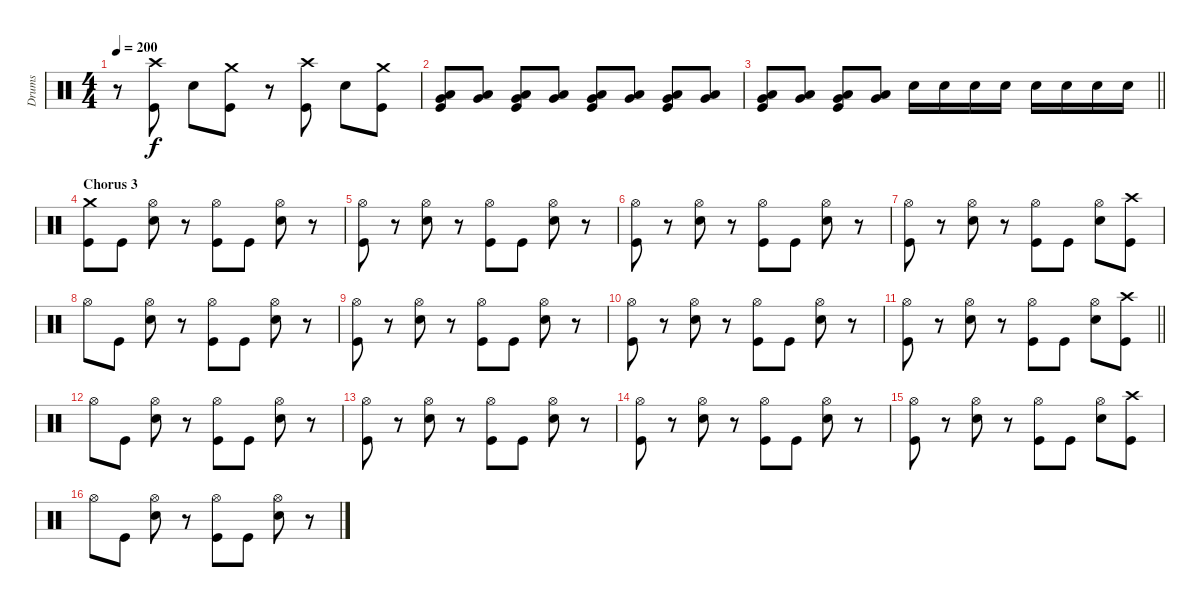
\track ("Drums" "Drums") {instrument percussion}
\staff {score}
\articulation defaults
\ts (4 4)
\tempo 200
\clef neutral
\ks c
r.8{dy f} ("Crash high (hit)" "Kick (hit)").8 "Electric Snare (hit)".8 ("Crash medium (hit)" "Kick (hit)").8 r.8 ("Crash high (hit)" "Kick (hit)").8 "Electric Snare (hit)".8 ("Crash medium (hit)" "Kick (hit)").8 |
("Very Low Tom (hit)" "Low Floor Tom (hit)" "Kick (hit)").8 ("Very Low Tom (hit)" "Low Floor Tom (hit)").8 ("Very Low Tom (hit)" "Low Floor Tom (hit)" "Kick (hit)").8 ("Very Low Tom (hit)" "Low Floor Tom (hit)").8 ("Very Low Tom (hit)" "Low Floor Tom (hit)" "Kick (hit)").8 ("Very Low Tom (hit)" "Low Floor Tom (hit)").8 ("Very Low Tom (hit)" "Low Floor Tom (hit)" "Kick (hit)").8 ("Very Low Tom (hit)" "Low Floor Tom (hit)").8 |
\barLineRight lightlight
("Very Low Tom (hit)" "Low Floor Tom (hit)" "Kick (hit)").8 ("Very Low Tom (hit)" "Low Floor Tom (hit)").8 ("Very Low Tom (hit)" "Low Floor Tom (hit)" "Kick (hit)").8 ("Very Low Tom (hit)" "Low Floor Tom (hit)").8 "Electric Snare (hit)".16 "Electric Snare (hit)".16 "Electric Snare (hit)".16 "Electric Snare (hit)".16 "Electric Snare (hit)".16 "Electric Snare (hit)".16 "Electric Snare (hit)".16 "Electric Snare (hit)".16 |
\section ("" "Chorus 3")
("Crash medium (hit)" "Kick (hit)").8 "Kick (hit)".8 ("Hi-Hat (open)" "Electric Snare (hit)").8 r.8 ("Hi-Hat (open)" "Kick (hit)").8 "Kick (hit)".8 ("Hi-Hat (open)" "Electric Snare (hit)").8 r.8 |
("Hi-Hat (open)" "Kick (hit)").8 r.8 ("Hi-Hat (open)" "Electric Snare (hit)").8 r.8 ("Hi-Hat (open)" "Kick (hit)").8 "Kick (hit)".8 ("Hi-Hat (open)" "Electric Snare (hit)").8 r.8 |
("Hi-Hat (open)" "Kick (hit)").8 r.8 ("Hi-Hat (open)" "Electric Snare (hit)").8 r.8 ("Hi-Hat (open)" "Kick (hit)").8 "Kick (hit)".8 ("Hi-Hat (open)" "Electric Snare (hit)").8 r.8 |
("Hi-Hat (open)" "Kick (hit)").8 r.8 ("Hi-Hat (open)" "Electric Snare (hit)").8 r.8 ("Hi-Hat (open)" "Kick (hit)").8 "Kick (hit)".8 ("Hi-Hat (open)" "Electric Snare (hit)").8 ("Crash high (hit)" "Kick (hit)").8 |
"Hi-Hat (open)".8 "Kick (hit)".8 ("Hi-Hat (open)" "Electric Snare (hit)").8 r.8 ("Hi-Hat (open)" "Kick (hit)").8 "Kick (hit)".8 ("Hi-Hat (open)" "Electric Snare (hit)").8 r.8 |
("Hi-Hat (open)" "Kick (hit)").8 r.8 ("Hi-Hat (open)" "Electric Snare (hit)").8 r.8 ("Hi-Hat (open)" "Kick (hit)").8 "Kick (hit)".8 ("Hi-Hat (open)" "Electric Snare (hit)").8 r.8 |
("Hi-Hat (open)" "Kick (hit)").8 r.8 ("Hi-Hat (open)" "Electric Snare (hit)").8 r.8 ("Hi-Hat (open)" "Kick (hit)").8 "Kick (hit)".8 ("Hi-Hat (open)" "Electric Snare (hit)").8 r.8 |
\barLineRight lightlight
("Hi-Hat (open)" "Kick (hit)").8 r.8 ("Hi-Hat (open)" "Electric Snare (hit)").8 r.8 ("Hi-Hat (open)" "Kick (hit)").8 "Kick (hit)".8 ("Hi-Hat (open)" "Electric Snare (hit)").8 ("Crash high (hit)" "Kick (hit)").8 |
"Hi-Hat (open)".8 "Kick (hit)".8 ("Hi-Hat (open)" "Electric Snare (hit)").8 r.8 ("Hi-Hat (open)" "Kick (hit)").8 "Kick (hit)".8 ("Hi-Hat (open)" "Electric Snare (hit)").8 r.8 |
("Hi-Hat (open)" "Kick (hit)").8 r.8 ("Hi-Hat (open)" "Electric Snare (hit)").8 r.8 ("Hi-Hat (open)" "Kick (hit)").8 "Kick (hit)".8 ("Hi-Hat (open)" "Electric Snare (hit)").8 r.8 |
("Hi-Hat (open)" "Kick (hit)").8 r.8 ("Hi-Hat (open)" "Electric Snare (hit)").8 r.8 ("Hi-Hat (open)" "Kick (hit)").8 "Kick (hit)".8 ("Hi-Hat (open)" "Electric Snare (hit)").8 r.8 |
("Hi-Hat (open)" "Kick (hit)").8 r.8 ("Hi-Hat (open)" "Electric Snare (hit)").8 r.8 ("Hi-Hat (open)" "Kick (hit)").8 "Kick (hit)".8 ("Hi-Hat (open)" "Electric Snare (hit)").8 ("Crash high (hit)" "Kick (hit)").8 |
"Hi-Hat (open)".8 "Kick (hit)".8 ("Hi-Hat (open)" "Electric Snare (hit)").8 r.8 ("Hi-Hat (open)" "Kick (hit)").8 "Kick (hit)".8 ("Hi-Hat (open)" "Electric Snare (hit)").8 r.8
